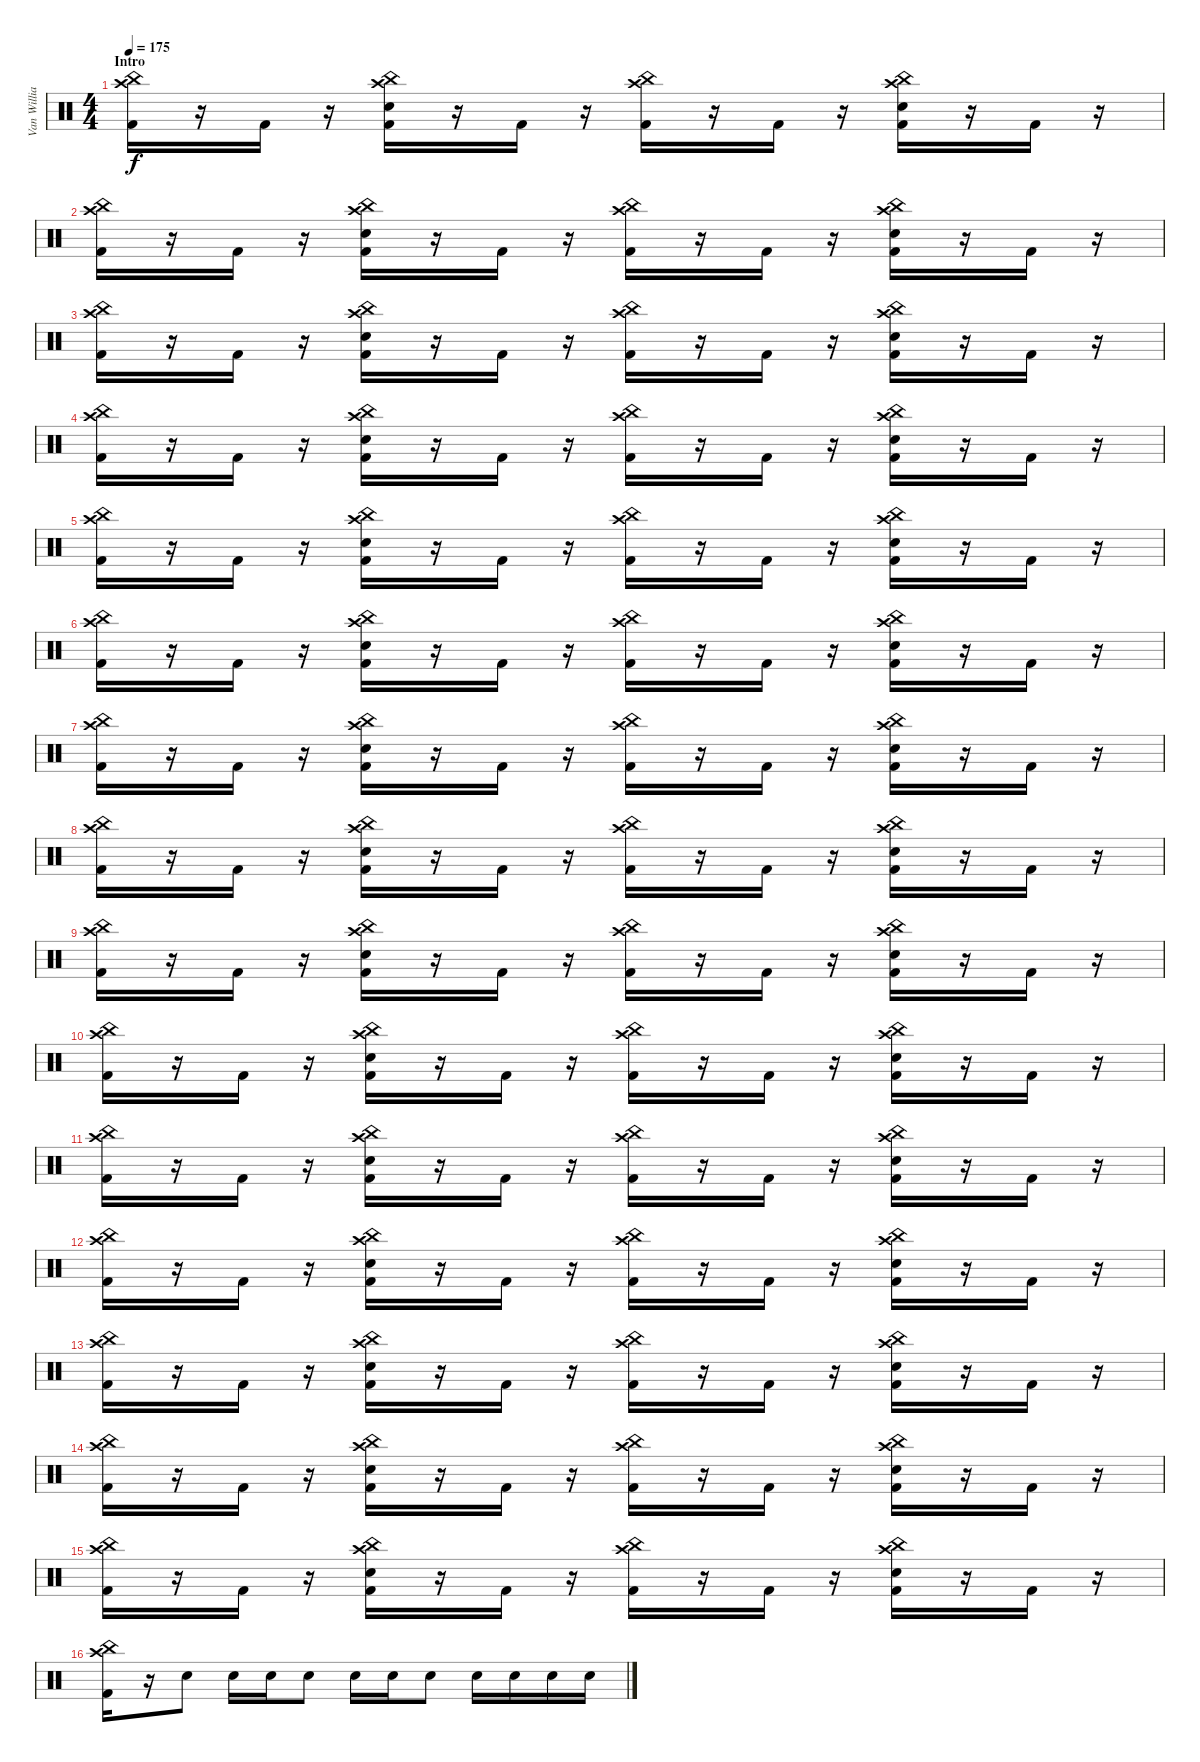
\track ("Van Williams" "Van Willia") {instrument percussion}
\staff {score}
\articulation defaults
\ts (4 4)
\section ("" "Intro ")
\tempo 175
\clef neutral
\ks c
("Crash high (hit)" "China (hit)" "Kick (hit) 2").16{dy f} r.16 "Kick (hit) 2".16 r.16 ("Crash high (hit)" "China (hit)" "Kick (hit) 2" "Electric Snare (hit)").16 r.16 "Kick (hit) 2".16 r.16 ("Crash high (hit)" "China (hit)" "Kick (hit) 2").16 r.16 "Kick (hit) 2".16 r.16 ("Crash high (hit)" "China (hit)" "Kick (hit) 2" "Electric Snare (hit)").16 r.16 "Kick (hit) 2".16 r.16 |
("Crash high (hit)" "China (hit)" "Kick (hit) 2").16 r.16 "Kick (hit) 2".16 r.16 ("Crash high (hit)" "China (hit)" "Kick (hit) 2" "Electric Snare (hit)").16 r.16 "Kick (hit) 2".16 r.16 ("Crash high (hit)" "China (hit)" "Kick (hit) 2").16 r.16 "Kick (hit) 2".16 r.16 ("Crash high (hit)" "China (hit)" "Kick (hit) 2" "Electric Snare (hit)").16 r.16 "Kick (hit) 2".16 r.16 |
("Crash high (hit)" "China (hit)" "Kick (hit) 2").16 r.16 "Kick (hit) 2".16 r.16 ("Crash high (hit)" "China (hit)" "Kick (hit) 2" "Electric Snare (hit)").16 r.16 "Kick (hit) 2".16 r.16 ("Crash high (hit)" "China (hit)" "Kick (hit) 2").16 r.16 "Kick (hit) 2".16 r.16 ("Crash high (hit)" "China (hit)" "Kick (hit) 2" "Electric Snare (hit)").16 r.16 "Kick (hit) 2".16 r.16 |
("Crash high (hit)" "China (hit)" "Kick (hit) 2").16 r.16 "Kick (hit) 2".16 r.16 ("Crash high (hit)" "China (hit)" "Kick (hit) 2" "Electric Snare (hit)").16 r.16 "Kick (hit) 2".16 r.16 ("Crash high (hit)" "China (hit)" "Kick (hit) 2").16 r.16 "Kick (hit) 2".16 r.16 ("Crash high (hit)" "China (hit)" "Kick (hit) 2" "Electric Snare (hit)").16 r.16 "Kick (hit) 2".16 r.16 |
("Crash high (hit)" "China (hit)" "Kick (hit) 2").16 r.16 "Kick (hit) 2".16 r.16 ("Crash high (hit)" "China (hit)" "Kick (hit) 2" "Electric Snare (hit)").16 r.16 "Kick (hit) 2".16 r.16 ("Crash high (hit)" "China (hit)" "Kick (hit) 2").16 r.16 "Kick (hit) 2".16 r.16 ("Crash high (hit)" "China (hit)" "Kick (hit) 2" "Electric Snare (hit)").16 r.16 "Kick (hit) 2".16 r.16 |
("Crash high (hit)" "China (hit)" "Kick (hit) 2").16 r.16 "Kick (hit) 2".16 r.16 ("Crash high (hit)" "China (hit)" "Kick (hit) 2" "Electric Snare (hit)").16 r.16 "Kick (hit) 2".16 r.16 ("Crash high (hit)" "China (hit)" "Kick (hit) 2").16 r.16 "Kick (hit) 2".16 r.16 ("Crash high (hit)" "China (hit)" "Kick (hit) 2" "Electric Snare (hit)").16 r.16 "Kick (hit) 2".16 r.16 |
("Crash high (hit)" "China (hit)" "Kick (hit) 2").16 r.16 "Kick (hit) 2".16 r.16 ("Crash high (hit)" "China (hit)" "Kick (hit) 2" "Electric Snare (hit)").16 r.16 "Kick (hit) 2".16 r.16 ("Crash high (hit)" "China (hit)" "Kick (hit) 2").16 r.16 "Kick (hit) 2".16 r.16 ("Crash high (hit)" "China (hit)" "Kick (hit) 2" "Electric Snare (hit)").16 r.16 "Kick (hit) 2".16 r.16 |
("Crash high (hit)" "China (hit)" "Kick (hit) 2").16 r.16 "Kick (hit) 2".16 r.16 ("Crash high (hit)" "China (hit)" "Kick (hit) 2" "Electric Snare (hit)").16 r.16 "Kick (hit) 2".16 r.16 ("Crash high (hit)" "China (hit)" "Kick (hit) 2").16 r.16 "Kick (hit) 2".16 r.16 ("Crash high (hit)" "China (hit)" "Kick (hit) 2" "Electric Snare (hit)").16 r.16 "Kick (hit) 2".16 r.16 |
("Crash high (hit)" "China (hit)" "Kick (hit) 2").16 r.16 "Kick (hit) 2".16 r.16 ("Crash high (hit)" "China (hit)" "Kick (hit) 2" "Electric Snare (hit)").16 r.16 "Kick (hit) 2".16 r.16 ("Crash high (hit)" "China (hit)" "Kick (hit) 2").16 r.16 "Kick (hit) 2".16 r.16 ("Crash high (hit)" "China (hit)" "Kick (hit) 2" "Electric Snare (hit)").16 r.16 "Kick (hit) 2".16 r.16 |
("Crash high (hit)" "China (hit)" "Kick (hit) 2").16 r.16 "Kick (hit) 2".16 r.16 ("Crash high (hit)" "China (hit)" "Kick (hit) 2" "Electric Snare (hit)").16 r.16 "Kick (hit) 2".16 r.16 ("Crash high (hit)" "China (hit)" "Kick (hit) 2").16 r.16 "Kick (hit) 2".16 r.16 ("Crash high (hit)" "China (hit)" "Kick (hit) 2" "Electric Snare (hit)").16 r.16 "Kick (hit) 2".16 r.16 |
("Crash high (hit)" "China (hit)" "Kick (hit) 2").16 r.16 "Kick (hit) 2".16 r.16 ("Crash high (hit)" "China (hit)" "Kick (hit) 2" "Electric Snare (hit)").16 r.16 "Kick (hit) 2".16 r.16 ("Crash high (hit)" "China (hit)" "Kick (hit) 2").16 r.16 "Kick (hit) 2".16 r.16 ("Crash high (hit)" "China (hit)" "Kick (hit) 2" "Electric Snare (hit)").16 r.16 "Kick (hit) 2".16 r.16 |
("Crash high (hit)" "China (hit)" "Kick (hit) 2").16 r.16 "Kick (hit) 2".16 r.16 ("Crash high (hit)" "China (hit)" "Kick (hit) 2" "Electric Snare (hit)").16 r.16 "Kick (hit) 2".16 r.16 ("Crash high (hit)" "China (hit)" "Kick (hit) 2").16 r.16 "Kick (hit) 2".16 r.16 ("Crash high (hit)" "China (hit)" "Kick (hit) 2" "Electric Snare (hit)").16 r.16 "Kick (hit) 2".16 r.16 |
("Crash high (hit)" "China (hit)" "Kick (hit) 2").16 r.16 "Kick (hit) 2".16 r.16 ("Crash high (hit)" "China (hit)" "Kick (hit) 2" "Electric Snare (hit)").16 r.16 "Kick (hit) 2".16 r.16 ("Crash high (hit)" "China (hit)" "Kick (hit) 2").16 r.16 "Kick (hit) 2".16 r.16 ("Crash high (hit)" "China (hit)" "Kick (hit) 2" "Electric Snare (hit)").16 r.16 "Kick (hit) 2".16 r.16 |
("Crash high (hit)" "China (hit)" "Kick (hit) 2").16 r.16 "Kick (hit) 2".16 r.16 ("Crash high (hit)" "China (hit)" "Kick (hit) 2" "Electric Snare (hit)").16 r.16 "Kick (hit) 2".16 r.16 ("Crash high (hit)" "China (hit)" "Kick (hit) 2").16 r.16 "Kick (hit) 2".16 r.16 ("Crash high (hit)" "China (hit)" "Kick (hit) 2" "Electric Snare (hit)").16 r.16 "Kick (hit) 2".16 r.16 |
("Crash high (hit)" "China (hit)" "Kick (hit) 2").16 r.16 "Kick (hit) 2".16 r.16 ("Crash high (hit)" "China (hit)" "Kick (hit) 2" "Electric Snare (hit)").16 r.16 "Kick (hit) 2".16 r.16 ("Crash high (hit)" "China (hit)" "Kick (hit) 2").16 r.16 "Kick (hit) 2".16 r.16 ("Crash high (hit)" "China (hit)" "Kick (hit) 2" "Electric Snare (hit)").16 r.16 "Kick (hit) 2".16 r.16 |
("Crash high (hit)" "China (hit)" "Kick (hit) 2").16 r.16 "Electric Snare (hit)".8 "Electric Snare (hit)".16 "Electric Snare (hit)".16 "Electric Snare (hit)".8 "Electric Snare (hit)".16 "Electric Snare (hit)".16 "Electric Snare (hit)".8 "Electric Snare (hit)".16 "Electric Snare (hit)".16 "Electric Snare (hit)".16 "Electric Snare (hit)".16
